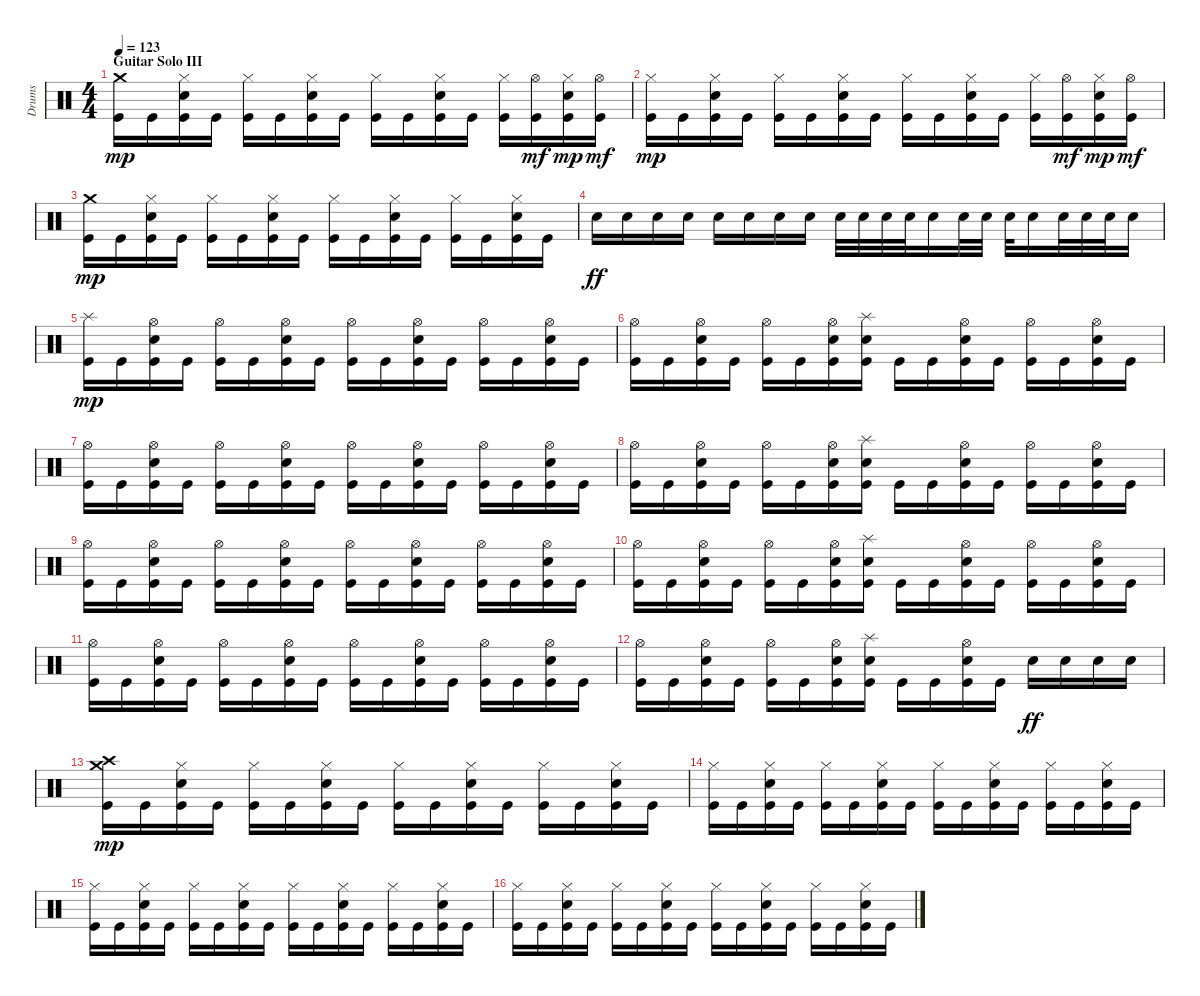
\track ("Drums" "Drums") {instrument percussion}
\staff {score}
\articulation defaults
\ts (4 4)
\section ("" "Guitar Solo III")
\tempo 123
\clef neutral
\ks c
("Crash medium (hit)" "Kick (hit)").16{dy mp} "Kick (hit)".16 ("Hi-Hat (closed)" "Electric Snare (hit)" "Kick (hit)").16 "Kick (hit)".16 ("Hi-Hat (closed)" "Kick (hit)").16 "Kick (hit)".16 ("Hi-Hat (closed)" "Electric Snare (hit)" "Kick (hit)").16 "Kick (hit)".16 ("Hi-Hat (closed)" "Kick (hit)").16 "Kick (hit)".16 ("Hi-Hat (closed)" "Electric Snare (hit)" "Kick (hit)").16 "Kick (hit)".16 ("Hi-Hat (closed)" "Kick (hit)").16 ("Hi-Hat (open)" "Kick (hit)").16{dy mf} ("Hi-Hat (closed)" "Electric Snare (hit)" "Kick (hit)").16{dy mp} ("Hi-Hat (open)" "Kick (hit)").16{dy mf} |
("Hi-Hat (closed)" "Kick (hit)").16{dy mp} "Kick (hit)".16 ("Hi-Hat (closed)" "Electric Snare (hit)" "Kick (hit)").16 "Kick (hit)".16 ("Hi-Hat (closed)" "Kick (hit)").16 "Kick (hit)".16 ("Hi-Hat (closed)" "Electric Snare (hit)" "Kick (hit)").16 "Kick (hit)".16 ("Hi-Hat (closed)" "Kick (hit)").16 "Kick (hit)".16 ("Hi-Hat (closed)" "Electric Snare (hit)" "Kick (hit)").16 "Kick (hit)".16 ("Hi-Hat (closed)" "Kick (hit)").16 ("Hi-Hat (open)" "Kick (hit)").16{dy mf} ("Hi-Hat (closed)" "Electric Snare (hit)" "Kick (hit)").16{dy mp} ("Hi-Hat (open)" "Kick (hit)").16{dy mf} |
("Crash medium (hit)" "Kick (hit)").16{dy mp} "Kick (hit)".16 ("Hi-Hat (closed)" "Electric Snare (hit)" "Kick (hit)").16 "Kick (hit)".16 ("Hi-Hat (closed)" "Kick (hit)").16 "Kick (hit)".16 ("Hi-Hat (closed)" "Electric Snare (hit)" "Kick (hit)").16 "Kick (hit)".16 ("Hi-Hat (closed)" "Kick (hit)").16 "Kick (hit)".16 ("Hi-Hat (closed)" "Electric Snare (hit)" "Kick (hit)").16 "Kick (hit)".16 ("Hi-Hat (closed)" "Kick (hit)").16 "Kick (hit)".16 ("Hi-Hat (closed)" "Electric Snare (hit)" "Kick (hit)").16 "Kick (hit)".16 |
"Snare (hit) 2".16{dy ff} "Snare (hit) 2".16 "Snare (hit) 2".16 "Snare (hit) 2".16 "Snare (hit) 2".16 "Snare (hit) 2".16 "Snare (hit) 2".16 "Snare (hit) 2".16 "Snare (hit) 2".32 "Snare (hit) 2".32 "Snare (hit) 2".32 "Snare (hit) 2".32 "Snare (hit) 2".16 "Snare (hit) 2".32 "Snare (hit) 2".32 "Snare (hit) 2".32 "Snare (hit) 2".16 "Snare (hit) 2".32 "Snare (hit) 2".32 "Snare (hit) 2".32 "Snare (hit) 2".16 |
("Splash (hit)" "Kick (hit)").16{dy mp} "Kick (hit)".16 ("Hi-Hat (open)" "Electric Snare (hit)" "Kick (hit)").16 "Kick (hit)".16 ("Hi-Hat (open)" "Kick (hit)").16 "Kick (hit)".16 ("Hi-Hat (open)" "Electric Snare (hit)" "Kick (hit)").16 "Kick (hit)".16 ("Hi-Hat (open)" "Kick (hit)").16 "Kick (hit)".16 ("Hi-Hat (open)" "Electric Snare (hit)" "Kick (hit)").16 "Kick (hit)".16 ("Hi-Hat (open)" "Kick (hit)").16 "Kick (hit)".16 ("Hi-Hat (open)" "Electric Snare (hit)" "Kick (hit)").16 "Kick (hit)".16 |
("Hi-Hat (open)" "Kick (hit)").16 "Kick (hit)".16 ("Hi-Hat (open)" "Electric Snare (hit)" "Kick (hit)").16 "Kick (hit)".16 ("Hi-Hat (open)" "Kick (hit)").16 "Kick (hit)".16 ("Hi-Hat (open)" "Electric Snare (hit)" "Kick (hit)").16 ("Splash (hit)" "Electric Snare (hit)" "Kick (hit)").16 "Kick (hit)".16 "Kick (hit)".16 ("Hi-Hat (open)" "Electric Snare (hit)" "Kick (hit)").16 "Kick (hit)".16 ("Hi-Hat (open)" "Kick (hit)").16 "Kick (hit)".16 ("Hi-Hat (open)" "Electric Snare (hit)" "Kick (hit)").16 "Kick (hit)".16 |
("Hi-Hat (open)" "Kick (hit)").16 "Kick (hit)".16 ("Hi-Hat (open)" "Electric Snare (hit)" "Kick (hit)").16 "Kick (hit)".16 ("Hi-Hat (open)" "Kick (hit)").16 "Kick (hit)".16 ("Hi-Hat (open)" "Electric Snare (hit)" "Kick (hit)").16 "Kick (hit)".16 ("Hi-Hat (open)" "Kick (hit)").16 "Kick (hit)".16 ("Hi-Hat (open)" "Electric Snare (hit)" "Kick (hit)").16 "Kick (hit)".16 ("Hi-Hat (open)" "Kick (hit)").16 "Kick (hit)".16 ("Hi-Hat (open)" "Electric Snare (hit)" "Kick (hit)").16 "Kick (hit)".16 |
("Hi-Hat (open)" "Kick (hit)").16 "Kick (hit)".16 ("Hi-Hat (open)" "Electric Snare (hit)" "Kick (hit)").16 "Kick (hit)".16 ("Hi-Hat (open)" "Kick (hit)").16 "Kick (hit)".16 ("Hi-Hat (open)" "Electric Snare (hit)" "Kick (hit)").16 ("Splash (hit)" "Electric Snare (hit)" "Kick (hit)").16 "Kick (hit)".16 "Kick (hit)".16 ("Hi-Hat (open)" "Electric Snare (hit)" "Kick (hit)").16 "Kick (hit)".16 ("Hi-Hat (open)" "Kick (hit)").16 "Kick (hit)".16 ("Hi-Hat (open)" "Electric Snare (hit)" "Kick (hit)").16 "Kick (hit)".16 |
("Hi-Hat (open)" "Kick (hit)").16 "Kick (hit)".16 ("Hi-Hat (open)" "Electric Snare (hit)" "Kick (hit)").16 "Kick (hit)".16 ("Hi-Hat (open)" "Kick (hit)").16 "Kick (hit)".16 ("Hi-Hat (open)" "Electric Snare (hit)" "Kick (hit)").16 "Kick (hit)".16 ("Hi-Hat (open)" "Kick (hit)").16 "Kick (hit)".16 ("Hi-Hat (open)" "Electric Snare (hit)" "Kick (hit)").16 "Kick (hit)".16 ("Hi-Hat (open)" "Kick (hit)").16 "Kick (hit)".16 ("Hi-Hat (open)" "Electric Snare (hit)" "Kick (hit)").16 "Kick (hit)".16 |
("Hi-Hat (open)" "Kick (hit)").16 "Kick (hit)".16 ("Hi-Hat (open)" "Electric Snare (hit)" "Kick (hit)").16 "Kick (hit)".16 ("Hi-Hat (open)" "Kick (hit)").16 "Kick (hit)".16 ("Hi-Hat (open)" "Electric Snare (hit)" "Kick (hit)").16 ("Splash (hit)" "Electric Snare (hit)" "Kick (hit)").16 "Kick (hit)".16 "Kick (hit)".16 ("Hi-Hat (open)" "Electric Snare (hit)" "Kick (hit)").16 "Kick (hit)".16 ("Hi-Hat (open)" "Kick (hit)").16 "Kick (hit)".16 ("Hi-Hat (open)" "Electric Snare (hit)" "Kick (hit)").16 "Kick (hit)".16 |
("Hi-Hat (open)" "Kick (hit)").16 "Kick (hit)".16 ("Hi-Hat (open)" "Electric Snare (hit)" "Kick (hit)").16 "Kick (hit)".16 ("Hi-Hat (open)" "Kick (hit)").16 "Kick (hit)".16 ("Hi-Hat (open)" "Electric Snare (hit)" "Kick (hit)").16 "Kick (hit)".16 ("Hi-Hat (open)" "Kick (hit)").16 "Kick (hit)".16 ("Hi-Hat (open)" "Electric Snare (hit)" "Kick (hit)").16 "Kick (hit)".16 ("Hi-Hat (open)" "Kick (hit)").16 "Kick (hit)".16 ("Hi-Hat (open)" "Electric Snare (hit)" "Kick (hit)").16 "Kick (hit)".16 |
("Hi-Hat (open)" "Kick (hit)").16 "Kick (hit)".16 ("Hi-Hat (open)" "Electric Snare (hit)" "Kick (hit)").16 "Kick (hit)".16 ("Hi-Hat (open)" "Kick (hit)").16 "Kick (hit)".16 ("Hi-Hat (open)" "Electric Snare (hit)" "Kick (hit)").16 ("Splash (hit)" "Electric Snare (hit)" "Kick (hit)").16 "Kick (hit)".16 "Kick (hit)".16 ("Hi-Hat (open)" "Electric Snare (hit)" "Kick (hit)").16 "Kick (hit)".16 "Electric Snare (hit)".16{dy ff} "Electric Snare (hit)".16 "Electric Snare (hit)".16 "Electric Snare (hit)".16 |
("Crash high (hit)" "Crash medium (hit)" "Kick (hit)").16{dy mp} "Kick (hit)".16 ("Hi-Hat (closed)" "Electric Snare (hit)" "Kick (hit)").16 "Kick (hit)".16 ("Hi-Hat (closed)" "Kick (hit)").16 "Kick (hit)".16 ("Hi-Hat (closed)" "Electric Snare (hit)" "Kick (hit)").16 "Kick (hit)".16 ("Hi-Hat (closed)" "Kick (hit)").16 "Kick (hit)".16 ("Hi-Hat (closed)" "Electric Snare (hit)" "Kick (hit)").16 "Kick (hit)".16 ("Hi-Hat (closed)" "Kick (hit)").16 "Kick (hit)".16 ("Hi-Hat (closed)" "Electric Snare (hit)" "Kick (hit)").16 "Kick (hit)".16 |
("Hi-Hat (closed)" "Kick (hit)").16 "Kick (hit)".16 ("Hi-Hat (closed)" "Electric Snare (hit)" "Kick (hit)").16 "Kick (hit)".16 ("Hi-Hat (closed)" "Kick (hit)").16 "Kick (hit)".16 ("Hi-Hat (closed)" "Electric Snare (hit)" "Kick (hit)").16 "Kick (hit)".16 ("Hi-Hat (closed)" "Kick (hit)").16 "Kick (hit)".16 ("Hi-Hat (closed)" "Electric Snare (hit)" "Kick (hit)").16 "Kick (hit)".16 ("Hi-Hat (closed)" "Kick (hit)").16 "Kick (hit)".16 ("Hi-Hat (closed)" "Electric Snare (hit)" "Kick (hit)").16 "Kick (hit)".16 |
("Hi-Hat (closed)" "Kick (hit)").16 "Kick (hit)".16 ("Hi-Hat (closed)" "Electric Snare (hit)" "Kick (hit)").16 "Kick (hit)".16 ("Hi-Hat (closed)" "Kick (hit)").16 "Kick (hit)".16 ("Hi-Hat (closed)" "Electric Snare (hit)" "Kick (hit)").16 "Kick (hit)".16 ("Hi-Hat (closed)" "Kick (hit)").16 "Kick (hit)".16 ("Hi-Hat (closed)" "Electric Snare (hit)" "Kick (hit)").16 "Kick (hit)".16 ("Hi-Hat (closed)" "Kick (hit)").16 "Kick (hit)".16 ("Hi-Hat (closed)" "Electric Snare (hit)" "Kick (hit)").16 "Kick (hit)".16 |
("Hi-Hat (closed)" "Kick (hit)").16 "Kick (hit)".16 ("Hi-Hat (closed)" "Electric Snare (hit)" "Kick (hit)").16 "Kick (hit)".16 ("Hi-Hat (closed)" "Kick (hit)").16 "Kick (hit)".16 ("Hi-Hat (closed)" "Electric Snare (hit)" "Kick (hit)").16 "Kick (hit)".16 ("Hi-Hat (closed)" "Kick (hit)").16 "Kick (hit)".16 ("Hi-Hat (closed)" "Electric Snare (hit)" "Kick (hit)").16 "Kick (hit)".16 ("Hi-Hat (closed)" "Kick (hit)").16 "Kick (hit)".16 ("Hi-Hat (closed)" "Electric Snare (hit)" "Kick (hit)").16 "Kick (hit)".16
